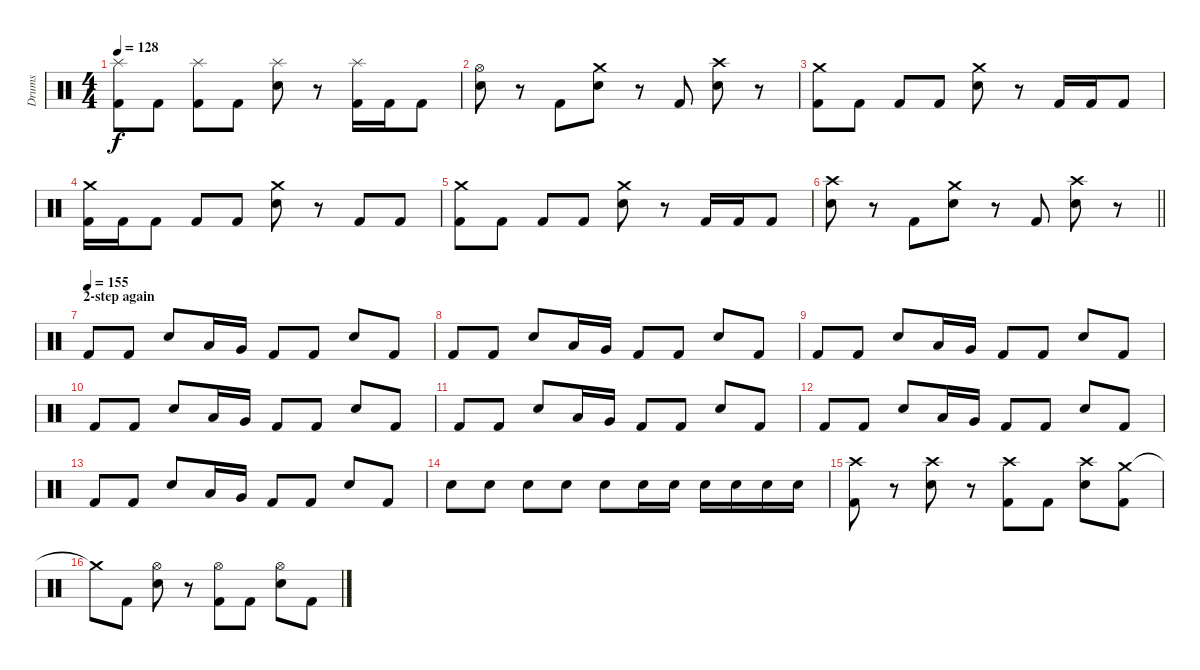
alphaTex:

\track ("Drums" "Drums") {instrument percussion}
\staff {score}
\articulation defaults
\ts (4 4)
\tempo 128
\clef neutral
\ks c
("Splash (hit)" "Kick (hit) 2").8{dy f} "Kick (hit) 2".8 ("Splash (hit)" "Kick (hit) 2").8 "Kick (hit) 2".8 ("Splash (hit)" "Electric Snare (hit)").8 r.8 ("Splash (hit)" "Kick (hit) 2").16 "Kick (hit) 2".16 "Kick (hit) 2".8 |
("Hi-Hat (open)" "Electric Snare (hit)").8 r.8 "Kick (hit) 2".8 ("Crash medium (hit)" "Electric Snare (hit)").8 r.8 "Kick (hit) 2".8 ("Crash high (hit)" "Electric Snare (hit)").8 r.8 |
("Crash medium (hit)" "Kick (hit) 2").8 "Kick (hit) 2".8 "Kick (hit) 2".8 "Kick (hit) 2".8 ("Crash medium (hit)" "Electric Snare (hit)").8 r.8 "Kick (hit) 2".16 "Kick (hit) 2".16 "Kick (hit) 2".8 |
("Crash medium (hit)" "Kick (hit) 2").16 "Kick (hit) 2".16 "Kick (hit) 2".8 "Kick (hit) 2".8 "Kick (hit) 2".8 ("Crash medium (hit)" "Electric Snare (hit)").8 r.8 "Kick (hit) 2".8 "Kick (hit) 2".8 |
("Crash medium (hit)" "Kick (hit) 2").8 "Kick (hit) 2".8 "Kick (hit) 2".8 "Kick (hit) 2".8 ("Crash medium (hit)" "Electric Snare (hit)").8 r.8 "Kick (hit) 2".16 "Kick (hit) 2".16 "Kick (hit) 2".8 |
\barLineRight lightlight
("Crash high (hit)" "Electric Snare (hit)").8 r.8 "Kick (hit) 2".8 ("Crash medium (hit)" "Electric Snare (hit)").8 r.8 "Kick (hit) 2".8 ("Crash high (hit)" "Electric Snare (hit)").8 r.8 |
\section ("" "2-step again")
\tempo (155)
"Kick (hit) 2".8 "Kick (hit) 2".8 "Electric Snare (hit)".8 "Low Tom (hit)".16 "Very Low Tom (hit)".16 "Kick (hit) 2".8 "Kick (hit) 2".8 "Electric Snare (hit)".8 "Kick (hit) 2".8 |
"Kick (hit) 2".8 "Kick (hit) 2".8 "Electric Snare (hit)".8 "Low Tom (hit)".16 "Very Low Tom (hit)".16 "Kick (hit) 2".8 "Kick (hit) 2".8 "Electric Snare (hit)".8 "Kick (hit) 2".8 |
"Kick (hit) 2".8 "Kick (hit) 2".8 "Electric Snare (hit)".8 "Low Tom (hit)".16 "Very Low Tom (hit)".16 "Kick (hit) 2".8 "Kick (hit) 2".8 "Electric Snare (hit)".8 "Kick (hit) 2".8 |
"Kick (hit) 2".8 "Kick (hit) 2".8 "Electric Snare (hit)".8 "Low Tom (hit)".16 "Very Low Tom (hit)".16 "Kick (hit) 2".8 "Kick (hit) 2".8 "Electric Snare (hit)".8 "Kick (hit) 2".8 |
"Kick (hit) 2".8 "Kick (hit) 2".8 "Electric Snare (hit)".8 "Low Tom (hit)".16 "Very Low Tom (hit)".16 "Kick (hit) 2".8 "Kick (hit) 2".8 "Electric Snare (hit)".8 "Kick (hit) 2".8 |
"Kick (hit) 2".8 "Kick (hit) 2".8 "Electric Snare (hit)".8 "Low Tom (hit)".16 "Very Low Tom (hit)".16 "Kick (hit) 2".8 "Kick (hit) 2".8 "Electric Snare (hit)".8 "Kick (hit) 2".8 |
"Kick (hit) 2".8 "Kick (hit) 2".8 "Electric Snare (hit)".8 "Low Tom (hit)".16 "Very Low Tom (hit)".16 "Kick (hit) 2".8 "Kick (hit) 2".8 "Electric Snare (hit)".8 "Kick (hit) 2".8 |
"Electric Snare (hit)".8 "Electric Snare (hit)".8 "Electric Snare (hit)".8 "Electric Snare (hit)".8 "Electric Snare (hit)".8 "Electric Snare (hit)".16 "Electric Snare (hit)".16 "Electric Snare (hit)".16 "Electric Snare (hit)".16 "Electric Snare (hit)".16 "Electric Snare (hit)".16 |
("Crash high (hit)" "Kick (hit) 2").8 r.8 ("Crash high (hit)" "Electric Snare (hit)").8 r.8 ("Crash high (hit)" "Kick (hit) 2").8 "Kick (hit) 2".8 ("Crash high (hit)" "Electric Snare (hit)").8 ("Crash medium (hit)" "Kick (hit) 2").8 |
"Crash medium (hit)"{t}.8 "Kick (hit) 2".8 ("Hi-Hat (open)" "Electric Snare (hit)").8 r.8 ("Hi-Hat (open)" "Kick (hit) 2").8 "Kick (hit) 2".8 ("Hi-Hat (open)" "Electric Snare (hit)").8 "Kick (hit) 2".8
